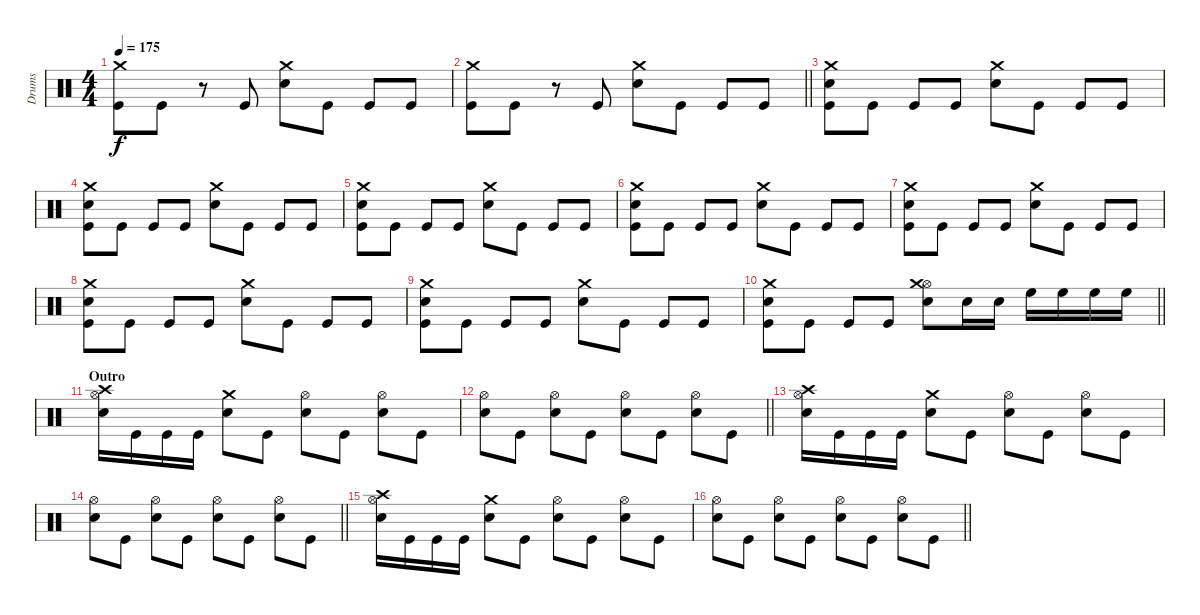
\track ("Drums" "Drums") {instrument percussion}
\staff {score}
\articulation defaults
\ts (4 4)
\tempo 175
\clef neutral
\ks c
("Crash medium (hit)" "Kick (hit)").8{dy f} "Kick (hit)".8 r.8 "Kick (hit)".8 ("Crash medium (hit)" "Electric Snare (hit)").8 "Kick (hit)".8 "Kick (hit)".8 "Kick (hit)".8 |
\barLineRight lightlight
("Crash medium (hit)" "Kick (hit)").8 "Kick (hit)".8 r.8 "Kick (hit)".8 ("Crash medium (hit)" "Electric Snare (hit)").8 "Kick (hit)".8 "Kick (hit)".8 "Kick (hit)".8 |
("Crash medium (hit)" "Electric Snare (hit)" "Kick (hit)").8 "Kick (hit)".8 "Kick (hit)".8 "Kick (hit)".8 ("Crash medium (hit)" "Electric Snare (hit)").8 "Kick (hit)".8 "Kick (hit)".8 "Kick (hit)".8 |
("Crash medium (hit)" "Electric Snare (hit)" "Kick (hit)").8 "Kick (hit)".8 "Kick (hit)".8 "Kick (hit)".8 ("Crash medium (hit)" "Electric Snare (hit)").8 "Kick (hit)".8 "Kick (hit)".8 "Kick (hit)".8 |
("Crash medium (hit)" "Electric Snare (hit)" "Kick (hit)").8 "Kick (hit)".8 "Kick (hit)".8 "Kick (hit)".8 ("Crash medium (hit)" "Electric Snare (hit)").8 "Kick (hit)".8 "Kick (hit)".8 "Kick (hit)".8 |
("Crash medium (hit)" "Electric Snare (hit)" "Kick (hit)").8 "Kick (hit)".8 "Kick (hit)".8 "Kick (hit)".8 ("Crash medium (hit)" "Electric Snare (hit)").8 "Kick (hit)".8 "Kick (hit)".8 "Kick (hit)".8 |
("Crash medium (hit)" "Electric Snare (hit)" "Kick (hit)").8 "Kick (hit)".8 "Kick (hit)".8 "Kick (hit)".8 ("Crash medium (hit)" "Electric Snare (hit)").8 "Kick (hit)".8 "Kick (hit)".8 "Kick (hit)".8 |
("Crash medium (hit)" "Electric Snare (hit)" "Kick (hit)").8 "Kick (hit)".8 "Kick (hit)".8 "Kick (hit)".8 ("Crash medium (hit)" "Electric Snare (hit)").8 "Kick (hit)".8 "Kick (hit)".8 "Kick (hit)".8 |
("Crash medium (hit)" "Electric Snare (hit)" "Kick (hit)").8 "Kick (hit)".8 "Kick (hit)".8 "Kick (hit)".8 ("Crash medium (hit)" "Electric Snare (hit)").8 "Kick (hit)".8 "Kick (hit)".8 "Kick (hit)".8 |
\barLineRight lightlight
("Crash medium (hit)" "Electric Snare (hit)" "Kick (hit)").8 "Kick (hit)".8 "Kick (hit)".8 "Kick (hit)".8 ("Hi-Hat (open)" "Crash medium (hit)" "Electric Snare (hit)").8 "Electric Snare (hit)".16 "Electric Snare (hit)".16 "High Floor Tom (hit)".16 "High Floor Tom (hit)".16 "High Floor Tom (hit)".16 "High Floor Tom (hit)".16 |
\section ("" "Outro")
("Crash high (hit)" "Hi-Hat (open)" "Electric Snare (hit)").16 "Kick (hit)".16 "Kick (hit)".16 "Kick (hit)".16 ("Crash medium (hit)" "Electric Snare (hit)").8 "Kick (hit)".8 ("Hi-Hat (open)" "Electric Snare (hit)").8 "Kick (hit)".8 ("Hi-Hat (open)" "Electric Snare (hit)").8 "Kick (hit)".8 |
\barLineRight lightlight
("Hi-Hat (open)" "Electric Snare (hit)").8 "Kick (hit)".8 ("Hi-Hat (open)" "Electric Snare (hit)").8 "Kick (hit)".8 ("Hi-Hat (open)" "Electric Snare (hit)").8 "Kick (hit)".8 ("Hi-Hat (open)" "Electric Snare (hit)").8 "Kick (hit)".8 |
("Crash high (hit)" "Hi-Hat (open)" "Electric Snare (hit)").16 "Kick (hit)".16 "Kick (hit)".16 "Kick (hit)".16 ("Crash medium (hit)" "Electric Snare (hit)").8 "Kick (hit)".8 ("Hi-Hat (open)" "Electric Snare (hit)").8 "Kick (hit)".8 ("Hi-Hat (open)" "Electric Snare (hit)").8 "Kick (hit)".8 |
\barLineRight lightlight
("Hi-Hat (open)" "Electric Snare (hit)").8 "Kick (hit)".8 ("Hi-Hat (open)" "Electric Snare (hit)").8 "Kick (hit)".8 ("Hi-Hat (open)" "Electric Snare (hit)").8 "Kick (hit)".8 ("Hi-Hat (open)" "Electric Snare (hit)").8 "Kick (hit)".8 |
("Crash high (hit)" "Hi-Hat (open)" "Electric Snare (hit)").16 "Kick (hit)".16 "Kick (hit)".16 "Kick (hit)".16 ("Crash medium (hit)" "Electric Snare (hit)").8 "Kick (hit)".8 ("Hi-Hat (open)" "Electric Snare (hit)").8 "Kick (hit)".8 ("Hi-Hat (open)" "Electric Snare (hit)").8 "Kick (hit)".8 |
\barLineRight lightlight
("Hi-Hat (open)" "Electric Snare (hit)").8 "Kick (hit)".8 ("Hi-Hat (open)" "Electric Snare (hit)").8 "Kick (hit)".8 ("Hi-Hat (open)" "Electric Snare (hit)").8 "Kick (hit)".8 ("Hi-Hat (open)" "Electric Snare (hit)").8 "Kick (hit)".8
